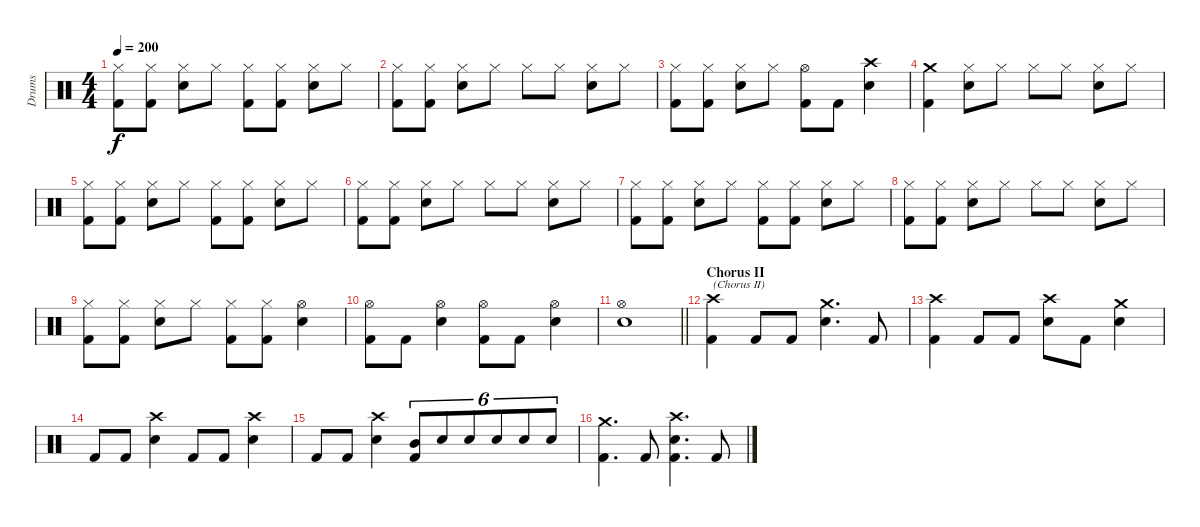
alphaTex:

\track ("Drums" "Drums") {instrument percussion}
\staff {score}
\articulation defaults
\ts (4 4)
\tempo 200
\clef neutral
\ks c
("Hi-Hat (closed)" "Kick (hit) 2").8{dy f} ("Hi-Hat (closed)" "Kick (hit) 2").8 ("Hi-Hat (closed)" "Electric Snare (hit)").8 "Hi-Hat (closed)".8 ("Hi-Hat (closed)" "Kick (hit) 2").8 ("Hi-Hat (closed)" "Kick (hit) 2").8 ("Hi-Hat (closed)" "Electric Snare (hit)").8 "Hi-Hat (closed)".8 |
("Hi-Hat (closed)" "Kick (hit) 2").8 ("Hi-Hat (closed)" "Kick (hit) 2").8 ("Hi-Hat (closed)" "Electric Snare (hit)").8 "Hi-Hat (closed)".8 "Hi-Hat (closed)".8 "Hi-Hat (closed)".8 ("Hi-Hat (closed)" "Electric Snare (hit)").8 "Hi-Hat (closed)".8 |
("Hi-Hat (closed)" "Kick (hit) 2").8 ("Hi-Hat (closed)" "Kick (hit) 2").8 ("Hi-Hat (closed)" "Electric Snare (hit)").8 "Hi-Hat (closed)".8 ("Hi-Hat (open)" "Kick (hit) 2").8 "Kick (hit) 2".8 ("Crash high (hit)" "Electric Snare (hit)").4 |
("Crash medium (hit)" "Kick (hit) 2").4 ("Hi-Hat (closed)" "Electric Snare (hit)").8 "Hi-Hat (closed)".8 "Hi-Hat (closed)".8 "Hi-Hat (closed)".8 ("Hi-Hat (closed)" "Electric Snare (hit)").8 "Hi-Hat (closed)".8 |
("Hi-Hat (closed)" "Kick (hit) 2").8 ("Hi-Hat (closed)" "Kick (hit) 2").8 ("Hi-Hat (closed)" "Electric Snare (hit)").8 "Hi-Hat (closed)".8 ("Hi-Hat (closed)" "Kick (hit) 2").8 ("Hi-Hat (closed)" "Kick (hit) 2").8 ("Hi-Hat (closed)" "Electric Snare (hit)").8 "Hi-Hat (closed)".8 |
("Hi-Hat (closed)" "Kick (hit) 2").8 ("Hi-Hat (closed)" "Kick (hit) 2").8 ("Hi-Hat (closed)" "Electric Snare (hit)").8 "Hi-Hat (closed)".8 "Hi-Hat (closed)".8 "Hi-Hat (closed)".8 ("Hi-Hat (closed)" "Electric Snare (hit)").8 "Hi-Hat (closed)".8 |
("Hi-Hat (closed)" "Kick (hit) 2").8 ("Hi-Hat (closed)" "Kick (hit) 2").8 ("Hi-Hat (closed)" "Electric Snare (hit)").8 "Hi-Hat (closed)".8 ("Hi-Hat (closed)" "Kick (hit) 2").8 ("Hi-Hat (closed)" "Kick (hit) 2").8 ("Hi-Hat (closed)" "Electric Snare (hit)").8 "Hi-Hat (closed)".8 |
("Hi-Hat (closed)" "Kick (hit) 2").8 ("Hi-Hat (closed)" "Kick (hit) 2").8 ("Hi-Hat (closed)" "Electric Snare (hit)").8 "Hi-Hat (closed)".8 "Hi-Hat (closed)".8 "Hi-Hat (closed)".8 ("Hi-Hat (closed)" "Electric Snare (hit)").8 "Hi-Hat (closed)".8 |
("Hi-Hat (closed)" "Kick (hit) 2").8 ("Hi-Hat (closed)" "Kick (hit) 2").8 ("Hi-Hat (closed)" "Electric Snare (hit)").8 "Hi-Hat (closed)".8 ("Hi-Hat (closed)" "Kick (hit) 2").8 ("Hi-Hat (closed)" "Kick (hit) 2").8 ("Hi-Hat (open)" "Electric Snare (hit)").4 |
("Hi-Hat (open)" "Kick (hit) 2").8 "Kick (hit) 2".8 ("Hi-Hat (open)" "Electric Snare (hit)").4 ("Hi-Hat (open)" "Kick (hit) 2").8 "Kick (hit) 2".8 ("Hi-Hat (open)" "Electric Snare (hit)").4 |
\barLineRight lightlight
("Hi-Hat (open)" "Electric Snare (hit)").1 |
\section ("" "Chorus II")
("Crash high (hit)" "Kick (hit) 2").4{txt "(Chorus II)"} "Kick (hit) 2".8 "Kick (hit) 2".8 ("Crash medium (hit)" "Electric Snare (hit)").4{d} "Kick (hit) 2".8 |
("Crash high (hit)" "Kick (hit) 2").4 "Kick (hit) 2".8 "Kick (hit) 2".8 ("Crash high (hit)" "Electric Snare (hit)").8 "Kick (hit) 2".8 ("Crash medium (hit)" "Electric Snare (hit)").4 |
"Kick (hit) 2".8 "Kick (hit) 2".8 ("Crash high (hit)" "Electric Snare (hit)").4 "Kick (hit) 2".8 "Kick (hit) 2".8 ("Crash high (hit)" "Electric Snare (hit)").4 |
"Kick (hit) 2".8 "Kick (hit) 2".8 ("Crash high (hit)" "Electric Snare (hit)").4 ("Mid Tom (hit)" "Kick (hit) 2").8{tu (6 4)} "Electric Snare (hit)".8{tu (6 4)} "Electric Snare (hit)".8{tu (6 4)} "Electric Snare (hit)".8{tu (6 4)} "Electric Snare (hit)".8{tu (6 4)} "Electric Snare (hit)".8{tu (6 4)} |
("Crash medium (hit)" "Kick (hit) 2").4{d} "Kick (hit) 2".8 ("Crash high (hit)" "Electric Snare (hit)" "Kick (hit) 2").4{d} "Kick (hit) 2".8
